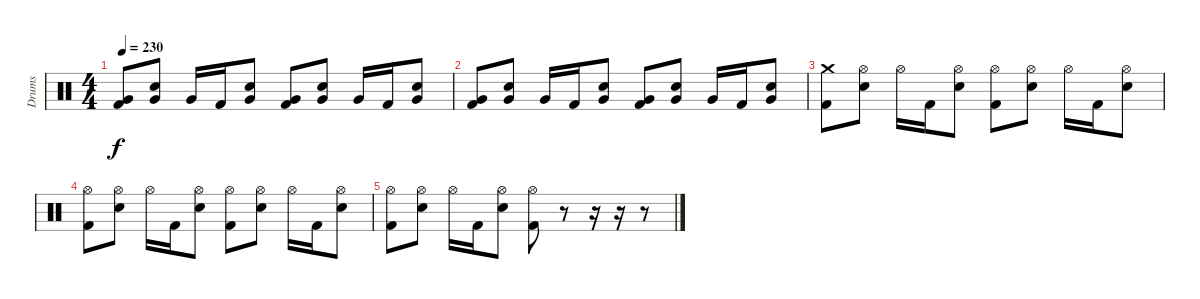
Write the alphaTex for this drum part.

\track ("Drums" "Drums") {instrument percussion}
\staff {score}
\articulation defaults
\ts (4 4)
\tempo 230
\clef neutral
\ks c
("Kick (hit) 2" "Very Low Tom (hit)").8{dy f} ("Snare (hit) 2" "Very Low Tom (hit)").8 "Very Low Tom (hit)".16 "Kick (hit) 2".16 ("Snare (hit) 2" "Very Low Tom (hit)").8 ("Kick (hit) 2" "Very Low Tom (hit)").8 ("Snare (hit) 2" "Very Low Tom (hit)").8 "Very Low Tom (hit)".16 "Kick (hit) 2".16 ("Snare (hit) 2" "Very Low Tom (hit)").8 |
("Kick (hit) 2" "Very Low Tom (hit)").8 ("Snare (hit) 2" "Very Low Tom (hit)").8 "Very Low Tom (hit)".16 "Kick (hit) 2".16 ("Snare (hit) 2" "Very Low Tom (hit)").8 ("Kick (hit) 2" "Very Low Tom (hit)").8 ("Snare (hit) 2" "Very Low Tom (hit)").8 "Very Low Tom (hit)".16 "Kick (hit) 2".16 ("Snare (hit) 2" "Very Low Tom (hit)").8 |
("Kick (hit) 2" "Crash medium (hit)").8 ("Snare (hit) 2" "Hi-Hat (open)").8 "Hi-Hat (open)".16 "Kick (hit) 2".16 ("Snare (hit) 2" "Hi-Hat (open)").8 ("Kick (hit) 2" "Hi-Hat (open)").8 ("Snare (hit) 2" "Hi-Hat (open)").8 "Hi-Hat (open)".16 "Kick (hit) 2".16 ("Snare (hit) 2" "Hi-Hat (open)").8 |
("Kick (hit) 2" "Hi-Hat (open)").8 ("Snare (hit) 2" "Hi-Hat (open)").8 "Hi-Hat (open)".16 "Kick (hit) 2".16 ("Snare (hit) 2" "Hi-Hat (open)").8 ("Kick (hit) 2" "Hi-Hat (open)").8 ("Snare (hit) 2" "Hi-Hat (open)").8 "Hi-Hat (open)".16 "Kick (hit) 2".16 ("Snare (hit) 2" "Hi-Hat (open)").8 |
("Kick (hit) 2" "Hi-Hat (open)").8 ("Snare (hit) 2" "Hi-Hat (open)").8 "Hi-Hat (open)".16 "Kick (hit) 2".16 ("Snare (hit) 2" "Hi-Hat (open)").8 ("Kick (hit) 2" "Hi-Hat (open)").8 r.8 r.16 r.16 r.8
